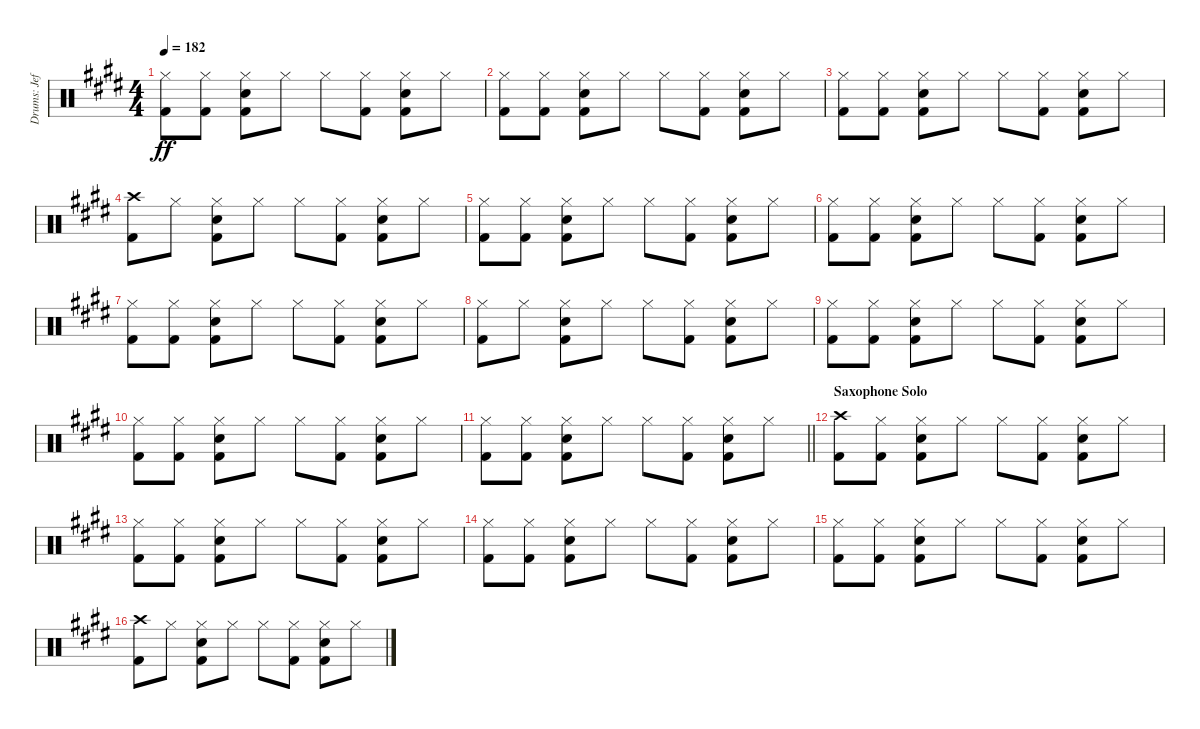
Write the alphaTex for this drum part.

\track ("Drums: Jeff" "Drums: Jef") {instrument percussion}
\staff {score}
\articulation defaults
\ts (4 4)
\tempo 182
\clef neutral
\ks e
("Hi-Hat (closed)" "Kick (hit) 2").8{dy ff} ("Hi-Hat (closed)" "Kick (hit) 2").8 ("Hi-Hat (closed)" "Electric Snare (hit)" "Kick (hit) 2").8 "Hi-Hat (closed)".8 "Hi-Hat (closed)".8 ("Hi-Hat (closed)" "Kick (hit) 2").8 ("Hi-Hat (closed)" "Electric Snare (hit)" "Kick (hit) 2").8 "Hi-Hat (closed)".8 |
("Hi-Hat (closed)" "Kick (hit) 2").8 ("Hi-Hat (closed)" "Kick (hit) 2").8 ("Hi-Hat (closed)" "Electric Snare (hit)" "Kick (hit) 2").8 "Hi-Hat (closed)".8 "Hi-Hat (closed)".8 ("Hi-Hat (closed)" "Kick (hit) 2").8 ("Hi-Hat (closed)" "Electric Snare (hit)" "Kick (hit) 2").8 "Hi-Hat (closed)".8 |
("Hi-Hat (closed)" "Kick (hit) 2").8 ("Hi-Hat (closed)" "Kick (hit) 2").8 ("Hi-Hat (closed)" "Electric Snare (hit)" "Kick (hit) 2").8 "Hi-Hat (closed)".8 "Hi-Hat (closed)".8 ("Hi-Hat (closed)" "Kick (hit) 2").8 ("Hi-Hat (closed)" "Electric Snare (hit)" "Kick (hit) 2").8 "Hi-Hat (closed)".8 |
("Crash high (hit)" "Kick (hit) 2").8 "Hi-Hat (closed)".8 ("Hi-Hat (closed)" "Electric Snare (hit)" "Kick (hit) 2").8 "Hi-Hat (closed)".8 "Hi-Hat (closed)".8 ("Hi-Hat (closed)" "Kick (hit) 2").8 ("Hi-Hat (closed)" "Electric Snare (hit)" "Kick (hit) 2").8 "Hi-Hat (closed)".8 |
("Hi-Hat (closed)" "Kick (hit) 2").8 ("Hi-Hat (closed)" "Kick (hit) 2").8 ("Hi-Hat (closed)" "Electric Snare (hit)" "Kick (hit) 2").8 "Hi-Hat (closed)".8 "Hi-Hat (closed)".8 ("Hi-Hat (closed)" "Kick (hit) 2").8 ("Hi-Hat (closed)" "Electric Snare (hit)" "Kick (hit) 2").8 "Hi-Hat (closed)".8 |
("Hi-Hat (closed)" "Kick (hit) 2").8 ("Hi-Hat (closed)" "Kick (hit) 2").8 ("Hi-Hat (closed)" "Electric Snare (hit)" "Kick (hit) 2").8 "Hi-Hat (closed)".8 "Hi-Hat (closed)".8 ("Hi-Hat (closed)" "Kick (hit) 2").8 ("Hi-Hat (closed)" "Electric Snare (hit)" "Kick (hit) 2").8 "Hi-Hat (closed)".8 |
("Hi-Hat (closed)" "Kick (hit) 2").8 ("Hi-Hat (closed)" "Kick (hit) 2").8 ("Hi-Hat (closed)" "Electric Snare (hit)" "Kick (hit) 2").8 "Hi-Hat (closed)".8 "Hi-Hat (closed)".8 ("Hi-Hat (closed)" "Kick (hit) 2").8 ("Hi-Hat (closed)" "Electric Snare (hit)" "Kick (hit) 2").8 "Hi-Hat (closed)".8 |
("Hi-Hat (closed)" "Kick (hit) 2").8 "Hi-Hat (closed)".8 ("Hi-Hat (closed)" "Electric Snare (hit)" "Kick (hit) 2").8 "Hi-Hat (closed)".8 "Hi-Hat (closed)".8 ("Hi-Hat (closed)" "Kick (hit) 2").8 ("Hi-Hat (closed)" "Electric Snare (hit)" "Kick (hit) 2").8 "Hi-Hat (closed)".8 |
("Hi-Hat (closed)" "Kick (hit) 2").8 ("Hi-Hat (closed)" "Kick (hit) 2").8 ("Hi-Hat (closed)" "Electric Snare (hit)" "Kick (hit) 2").8 "Hi-Hat (closed)".8 "Hi-Hat (closed)".8 ("Hi-Hat (closed)" "Kick (hit) 2").8 ("Hi-Hat (closed)" "Electric Snare (hit)" "Kick (hit) 2").8 "Hi-Hat (closed)".8 |
("Hi-Hat (closed)" "Kick (hit) 2").8 ("Hi-Hat (closed)" "Kick (hit) 2").8 ("Hi-Hat (closed)" "Electric Snare (hit)" "Kick (hit) 2").8 "Hi-Hat (closed)".8 "Hi-Hat (closed)".8 ("Hi-Hat (closed)" "Kick (hit) 2").8 ("Hi-Hat (closed)" "Electric Snare (hit)" "Kick (hit) 2").8 "Hi-Hat (closed)".8 |
\barLineRight lightlight
("Hi-Hat (closed)" "Kick (hit) 2").8 ("Hi-Hat (closed)" "Kick (hit) 2").8 ("Hi-Hat (closed)" "Electric Snare (hit)" "Kick (hit) 2").8 "Hi-Hat (closed)".8 "Hi-Hat (closed)".8 ("Hi-Hat (closed)" "Kick (hit) 2").8 ("Hi-Hat (closed)" "Electric Snare (hit)" "Kick (hit) 2").8 "Hi-Hat (closed)".8 |
\section ("" "Saxophone Solo")
("Crash high (hit)" "Kick (hit) 2").8 ("Hi-Hat (closed)" "Kick (hit) 2").8 ("Hi-Hat (closed)" "Electric Snare (hit)" "Kick (hit) 2").8 "Hi-Hat (closed)".8 "Hi-Hat (closed)".8 ("Hi-Hat (closed)" "Kick (hit) 2").8 ("Hi-Hat (closed)" "Electric Snare (hit)" "Kick (hit) 2").8 "Hi-Hat (closed)".8 |
("Hi-Hat (closed)" "Kick (hit) 2").8 ("Hi-Hat (closed)" "Kick (hit) 2").8 ("Hi-Hat (closed)" "Electric Snare (hit)" "Kick (hit) 2").8 "Hi-Hat (closed)".8 "Hi-Hat (closed)".8 ("Hi-Hat (closed)" "Kick (hit) 2").8 ("Hi-Hat (closed)" "Electric Snare (hit)" "Kick (hit) 2").8 "Hi-Hat (closed)".8 |
("Hi-Hat (closed)" "Kick (hit) 2").8 ("Hi-Hat (closed)" "Kick (hit) 2").8 ("Hi-Hat (closed)" "Electric Snare (hit)" "Kick (hit) 2").8 "Hi-Hat (closed)".8 "Hi-Hat (closed)".8 ("Hi-Hat (closed)" "Kick (hit) 2").8 ("Hi-Hat (closed)" "Electric Snare (hit)" "Kick (hit) 2").8 "Hi-Hat (closed)".8 |
("Hi-Hat (closed)" "Kick (hit) 2").8 ("Hi-Hat (closed)" "Kick (hit) 2").8 ("Hi-Hat (closed)" "Electric Snare (hit)" "Kick (hit) 2").8 "Hi-Hat (closed)".8 "Hi-Hat (closed)".8 ("Hi-Hat (closed)" "Kick (hit) 2").8 ("Hi-Hat (closed)" "Electric Snare (hit)" "Kick (hit) 2").8 "Hi-Hat (closed)".8 |
("Crash high (hit)" "Kick (hit) 2").8 "Hi-Hat (closed)".8 ("Hi-Hat (closed)" "Electric Snare (hit)" "Kick (hit) 2").8 "Hi-Hat (closed)".8 "Hi-Hat (closed)".8 ("Hi-Hat (closed)" "Kick (hit) 2").8 ("Hi-Hat (closed)" "Electric Snare (hit)" "Kick (hit) 2").8 "Hi-Hat (closed)".8
